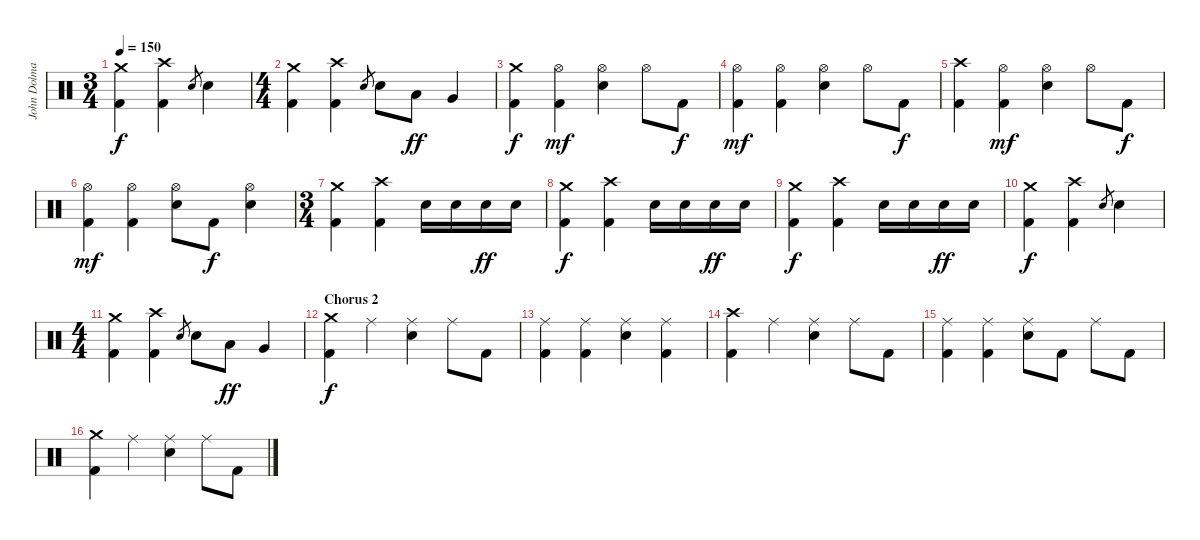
\track ("John Dolmayan" "John Dolma") {instrument percussion}
\staff {score}
\articulation defaults
\ts (3 4)
\tempo 150
\clef neutral
\ks c
("Crash medium (hit)" "Kick (hit) 2").4{dy f} ("Crash high (hit)" "Kick (hit) 2").4 "Electric Snare (hit)".8{gr} "Electric Snare (hit)".4 |
\ts (4 4)
("Crash medium (hit)" "Kick (hit) 2").4 ("Crash high (hit)" "Kick (hit) 2").4 "Electric Snare (hit)".8{gr} "Electric Snare (hit)".8 "Low Tom (hit)".8{dy ff} "Very Low Tom (hit)".4 |
("Crash medium (hit)" "Kick (hit) 2").4{dy f} ("Hi-Hat (open)" "Kick (hit) 2").4{dy mf} ("Hi-Hat (open)" "Electric Snare (hit)").4 "Hi-Hat (open)".8 "Kick (hit) 2".8{dy f} |
("Hi-Hat (open)" "Kick (hit) 2").4{dy mf} ("Hi-Hat (open)" "Kick (hit) 2").4 ("Hi-Hat (open)" "Electric Snare (hit)").4 "Hi-Hat (open)".8 "Kick (hit) 2".8{dy f} |
("Crash high (hit)" "Kick (hit) 2").4 ("Hi-Hat (open)" "Kick (hit) 2").4{dy mf} ("Hi-Hat (open)" "Electric Snare (hit)").4 "Hi-Hat (open)".8 "Kick (hit) 2".8{dy f} |
("Hi-Hat (open)" "Kick (hit) 2").4{dy mf} ("Hi-Hat (open)" "Kick (hit) 2").4 ("Hi-Hat (open)" "Electric Snare (hit)").8 "Kick (hit) 2".8{dy f} ("Hi-Hat (open)" "Electric Snare (hit)").4 |
\ts (3 4)
("Crash medium (hit)" "Kick (hit) 2").4 ("Crash high (hit)" "Kick (hit) 2").4 "Electric Snare (hit)".16 "Electric Snare (hit)".16 "Electric Snare (hit)".16{dy ff} "Electric Snare (hit)".16 |
("Crash medium (hit)" "Kick (hit) 2").4{dy f} ("Crash high (hit)" "Kick (hit) 2").4 "Electric Snare (hit)".16 "Electric Snare (hit)".16 "Electric Snare (hit)".16{dy ff} "Electric Snare (hit)".16 |
("Crash medium (hit)" "Kick (hit) 2").4{dy f} ("Crash high (hit)" "Kick (hit) 2").4 "Electric Snare (hit)".16 "Electric Snare (hit)".16 "Electric Snare (hit)".16{dy ff} "Electric Snare (hit)".16 |
("Crash medium (hit)" "Kick (hit) 2").4{dy f} ("Crash high (hit)" "Kick (hit) 2").4 "Electric Snare (hit)".8{gr} "Electric Snare (hit)".4 |
\ts (4 4)
("Crash medium (hit)" "Kick (hit) 2").4 ("Crash high (hit)" "Kick (hit) 2").4 "Electric Snare (hit)".8{gr} "Electric Snare (hit)".8 "Low Tom (hit)".8{dy ff} "Very Low Tom (hit)".4 |
\section ("" "Chorus 2")
("Crash medium (hit)" "Kick (hit) 2").4{dy f} "Ride (middle)".4 ("Ride (middle)" "Electric Snare (hit)").4 "Ride (middle)".8 "Kick (hit) 2".8 |
("Ride (middle)" "Kick (hit) 2").4 ("Ride (middle)" "Kick (hit) 2").4 ("Ride (middle)" "Electric Snare (hit)").4 ("Ride (middle)" "Kick (hit) 2").4 |
("Crash high (hit)" "Kick (hit) 2").4 "Ride (middle)".4 ("Ride (middle)" "Electric Snare (hit)").4 "Ride (middle)".8 "Kick (hit) 2".8 |
("Ride (middle)" "Kick (hit) 2").4 ("Ride (middle)" "Kick (hit) 2").4 ("Ride (middle)" "Electric Snare (hit)").8 "Kick (hit) 2".8 "Ride (middle)".8 "Kick (hit) 2".8 |
("Crash medium (hit)" "Kick (hit) 2").4 "Ride (middle)".4 ("Ride (middle)" "Electric Snare (hit)").4 "Ride (middle)".8 "Kick (hit) 2".8
